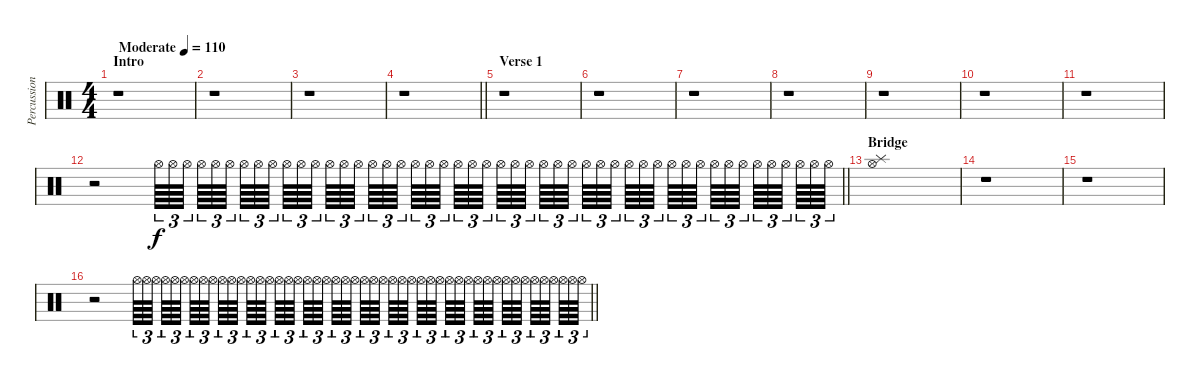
\track ("Percussion" "Percussion") {instrument percussion}
\staff {score}
\articulation defaults
\ts (4 4)
\section ("" "Intro")
\tempo (110 "Moderate")
\clef neutral
\ks c
r.1{dy f} |
r.1 |
r.1 |
\barLineRight lightlight
r.1 |
\section ("" "Verse 1")
r.1 |
r.1 |
r.1 |
r.1 |
r.1 |
r.1 |
r.1 |
\barLineRight lightlight
r.2 "Hi-Hat (open)".64{tu (3 2)} "Hi-Hat (open)".64{tu (3 2)} "Hi-Hat (open)".64{tu (3 2) beam splitsecondary} "Hi-Hat (open)".64{tu (3 2)} "Hi-Hat (open)".64{tu (3 2)} "Hi-Hat (open)".64{tu (3 2) beam splitsecondary} "Hi-Hat (open)".64{tu (3 2)} "Hi-Hat (open)".64{tu (3 2)} "Hi-Hat (open)".64{tu (3 2) beam splitsecondary} "Hi-Hat (open)".64{tu (3 2)} "Hi-Hat (open)".64{tu (3 2)} "Hi-Hat (open)".64{tu (3 2) beam splitsecondary} "Hi-Hat (open)".64{tu (3 2)} "Hi-Hat (open)".64{tu (3 2)} "Hi-Hat (open)".64{tu (3 2) beam splitsecondary} "Hi-Hat (open)".64{tu (3 2)} "Hi-Hat (open)".64{tu (3 2)} "Hi-Hat (open)".64{tu (3 2) beam splitsecondary} "Hi-Hat (open)".64{tu (3 2)} "Hi-Hat (open)".64{tu (3 2)} "Hi-Hat (open)".64{tu (3 2) beam splitsecondary} "Hi-Hat (open)".64{tu (3 2)} "Hi-Hat (open)".64{tu (3 2)} "Hi-Hat (open)".64{tu (3 2)} "Hi-Hat (open)".64{tu (3 2)} "Hi-Hat (open)".64{tu (3 2)} "Hi-Hat (open)".64{tu (3 2) beam splitsecondary} "Hi-Hat (open)".64{tu (3 2)} "Hi-Hat (open)".64{tu (3 2)} "Hi-Hat (open)".64{tu (3 2) beam splitsecondary} "Hi-Hat (open)".64{tu (3 2)} "Hi-Hat (open)".64{tu (3 2)} "Hi-Hat (open)".64{tu (3 2) beam splitsecondary} "Hi-Hat (open)".64{tu (3 2)} "Hi-Hat (open)".64{tu (3 2)} "Hi-Hat (open)".64{tu (3 2) beam splitsecondary} "Hi-Hat (open)".64{tu (3 2)} "Hi-Hat (open)".64{tu (3 2)} "Hi-Hat (open)".64{tu (3 2) beam splitsecondary} "Hi-Hat (open)".64{tu (3 2)} "Hi-Hat (open)".64{tu (3 2)} "Hi-Hat (open)".64{tu (3 2) beam splitsecondary} "Hi-Hat (open)".64{tu (3 2)} "Hi-Hat (open)".64{tu (3 2)} "Hi-Hat (open)".64{tu (3 2) beam splitsecondary} "Hi-Hat (open)".64{tu (3 2)} "Hi-Hat (open)".64{tu (3 2)} "Hi-Hat (open)".64{tu (3 2)} |
\section ("" "Bridge")
("Hi-Hat (open)" "Splash (hit)").1 |
r.1 |
r.1 |
\barLineRight lightlight
r.2 "Hi-Hat (open)".64{tu (3 2)} "Hi-Hat (open)".64{tu (3 2)} "Hi-Hat (open)".64{tu (3 2) beam splitsecondary} "Hi-Hat (open)".64{tu (3 2)} "Hi-Hat (open)".64{tu (3 2)} "Hi-Hat (open)".64{tu (3 2) beam splitsecondary} "Hi-Hat (open)".64{tu (3 2)} "Hi-Hat (open)".64{tu (3 2)} "Hi-Hat (open)".64{tu (3 2) beam splitsecondary} "Hi-Hat (open)".64{tu (3 2)} "Hi-Hat (open)".64{tu (3 2)} "Hi-Hat (open)".64{tu (3 2) beam splitsecondary} "Hi-Hat (open)".64{tu (3 2)} "Hi-Hat (open)".64{tu (3 2)} "Hi-Hat (open)".64{tu (3 2) beam splitsecondary} "Hi-Hat (open)".64{tu (3 2)} "Hi-Hat (open)".64{tu (3 2)} "Hi-Hat (open)".64{tu (3 2) beam splitsecondary} "Hi-Hat (open)".64{tu (3 2)} "Hi-Hat (open)".64{tu (3 2)} "Hi-Hat (open)".64{tu (3 2) beam splitsecondary} "Hi-Hat (open)".64{tu (3 2)} "Hi-Hat (open)".64{tu (3 2)} "Hi-Hat (open)".64{tu (3 2)} "Hi-Hat (open)".64{tu (3 2)} "Hi-Hat (open)".64{tu (3 2)} "Hi-Hat (open)".64{tu (3 2) beam splitsecondary} "Hi-Hat (open)".64{tu (3 2)} "Hi-Hat (open)".64{tu (3 2)} "Hi-Hat (open)".64{tu (3 2) beam splitsecondary} "Hi-Hat (open)".64{tu (3 2)} "Hi-Hat (open)".64{tu (3 2)} "Hi-Hat (open)".64{tu (3 2) beam splitsecondary} "Hi-Hat (open)".64{tu (3 2)} "Hi-Hat (open)".64{tu (3 2)} "Hi-Hat (open)".64{tu (3 2) beam splitsecondary} "Hi-Hat (open)".64{tu (3 2)} "Hi-Hat (open)".64{tu (3 2)} "Hi-Hat (open)".64{tu (3 2) beam splitsecondary} "Hi-Hat (open)".64{tu (3 2)} "Hi-Hat (open)".64{tu (3 2)} "Hi-Hat (open)".64{tu (3 2) beam splitsecondary} "Hi-Hat (open)".64{tu (3 2)} "Hi-Hat (open)".64{tu (3 2)} "Hi-Hat (open)".64{tu (3 2) beam splitsecondary} "Hi-Hat (open)".64{tu (3 2)} "Hi-Hat (open)".64{tu (3 2)} "Hi-Hat (open)".64{tu (3 2)}
